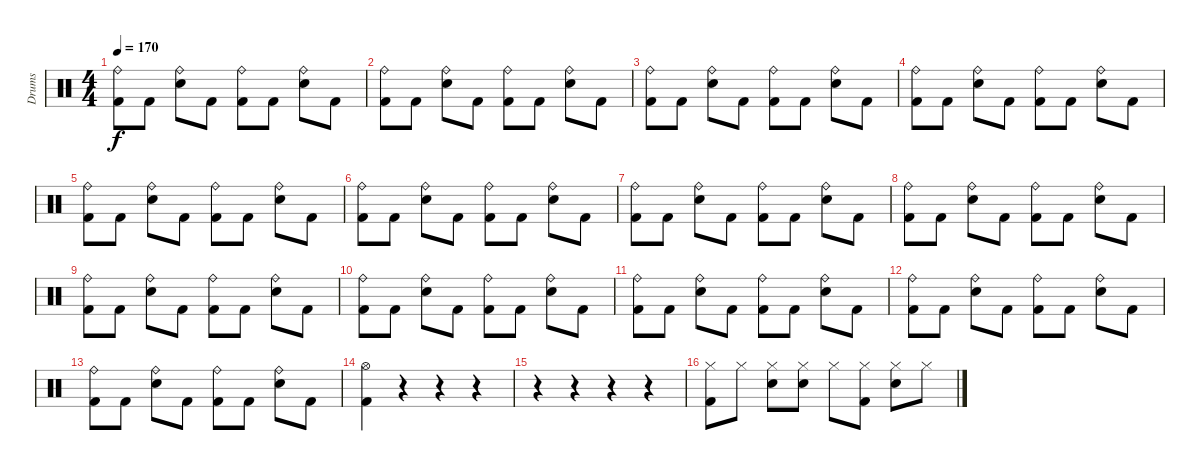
\track ("Drums" "Drums") {instrument percussion}
\staff {score}
\articulation defaults
\ts (4 4)
\tempo 170
\clef neutral
\ks c
("Ride (bell)" "Kick (hit) 2").8{dy f} "Kick (hit) 2".8 ("Ride (bell)" "Electric Snare (hit)").8 "Kick (hit) 2".8 ("Ride (bell)" "Kick (hit) 2").8 "Kick (hit) 2".8 ("Ride (bell)" "Electric Snare (hit)").8 "Kick (hit) 2".8 |
("Ride (bell)" "Kick (hit) 2").8 "Kick (hit) 2".8 ("Ride (bell)" "Electric Snare (hit)").8 "Kick (hit) 2".8 ("Ride (bell)" "Kick (hit) 2").8 "Kick (hit) 2".8 ("Ride (bell)" "Electric Snare (hit)").8 "Kick (hit) 2".8 |
("Ride (bell)" "Kick (hit) 2").8 "Kick (hit) 2".8 ("Ride (bell)" "Electric Snare (hit)").8 "Kick (hit) 2".8 ("Ride (bell)" "Kick (hit) 2").8 "Kick (hit) 2".8 ("Ride (bell)" "Electric Snare (hit)").8 "Kick (hit) 2".8 |
("Ride (bell)" "Kick (hit) 2").8 "Kick (hit) 2".8 ("Ride (bell)" "Electric Snare (hit)").8 "Kick (hit) 2".8 ("Ride (bell)" "Kick (hit) 2").8 "Kick (hit) 2".8 ("Ride (bell)" "Electric Snare (hit)").8 "Kick (hit) 2".8 |
("Ride (bell)" "Kick (hit) 2").8 "Kick (hit) 2".8 ("Ride (bell)" "Electric Snare (hit)").8 "Kick (hit) 2".8 ("Ride (bell)" "Kick (hit) 2").8 "Kick (hit) 2".8 ("Ride (bell)" "Electric Snare (hit)").8 "Kick (hit) 2".8 |
("Ride (bell)" "Kick (hit) 2").8 "Kick (hit) 2".8 ("Ride (bell)" "Electric Snare (hit)").8 "Kick (hit) 2".8 ("Ride (bell)" "Kick (hit) 2").8 "Kick (hit) 2".8 ("Ride (bell)" "Electric Snare (hit)").8 "Kick (hit) 2".8 |
("Ride (bell)" "Kick (hit) 2").8 "Kick (hit) 2".8 ("Ride (bell)" "Electric Snare (hit)").8 "Kick (hit) 2".8 ("Ride (bell)" "Kick (hit) 2").8 "Kick (hit) 2".8 ("Ride (bell)" "Electric Snare (hit)").8 "Kick (hit) 2".8 |
("Ride (bell)" "Kick (hit) 2").8 "Kick (hit) 2".8 ("Ride (bell)" "Electric Snare (hit)").8 "Kick (hit) 2".8 ("Ride (bell)" "Kick (hit) 2").8 "Kick (hit) 2".8 ("Ride (bell)" "Electric Snare (hit)").8 "Kick (hit) 2".8 |
("Ride (bell)" "Kick (hit) 2").8 "Kick (hit) 2".8 ("Ride (bell)" "Electric Snare (hit)").8 "Kick (hit) 2".8 ("Ride (bell)" "Kick (hit) 2").8 "Kick (hit) 2".8 ("Ride (bell)" "Electric Snare (hit)").8 "Kick (hit) 2".8 |
("Ride (bell)" "Kick (hit) 2").8 "Kick (hit) 2".8 ("Ride (bell)" "Electric Snare (hit)").8 "Kick (hit) 2".8 ("Ride (bell)" "Kick (hit) 2").8 "Kick (hit) 2".8 ("Ride (bell)" "Electric Snare (hit)").8 "Kick (hit) 2".8 |
("Ride (bell)" "Kick (hit) 2").8 "Kick (hit) 2".8 ("Ride (bell)" "Electric Snare (hit)").8 "Kick (hit) 2".8 ("Ride (bell)" "Kick (hit) 2").8 "Kick (hit) 2".8 ("Ride (bell)" "Electric Snare (hit)").8 "Kick (hit) 2".8 |
("Ride (bell)" "Kick (hit) 2").8 "Kick (hit) 2".8 ("Ride (bell)" "Electric Snare (hit)").8 "Kick (hit) 2".8 ("Ride (bell)" "Kick (hit) 2").8 "Kick (hit) 2".8 ("Ride (bell)" "Electric Snare (hit)").8 "Kick (hit) 2".8 |
("Ride (bell)" "Kick (hit) 2").8 "Kick (hit) 2".8 ("Ride (bell)" "Electric Snare (hit)").8 "Kick (hit) 2".8 ("Ride (bell)" "Kick (hit) 2").8 "Kick (hit) 2".8 ("Ride (bell)" "Electric Snare (hit)").8 "Kick (hit) 2".8 |
("Hi-Hat (open)" "Kick (hit) 2").4 r.4 r.4 r.4 |
r.4 r.4 r.4 r.4 |
("Hi-Hat (closed)" "Kick (hit) 2").8 "Hi-Hat (closed)".8 ("Hi-Hat (closed)" "Electric Snare (hit)").8 ("Hi-Hat (closed)" "Electric Snare (hit)").8 "Hi-Hat (closed)".8 ("Hi-Hat (closed)" "Kick (hit) 2").8 ("Hi-Hat (closed)" "Electric Snare (hit)").8 "Hi-Hat (closed)".8
